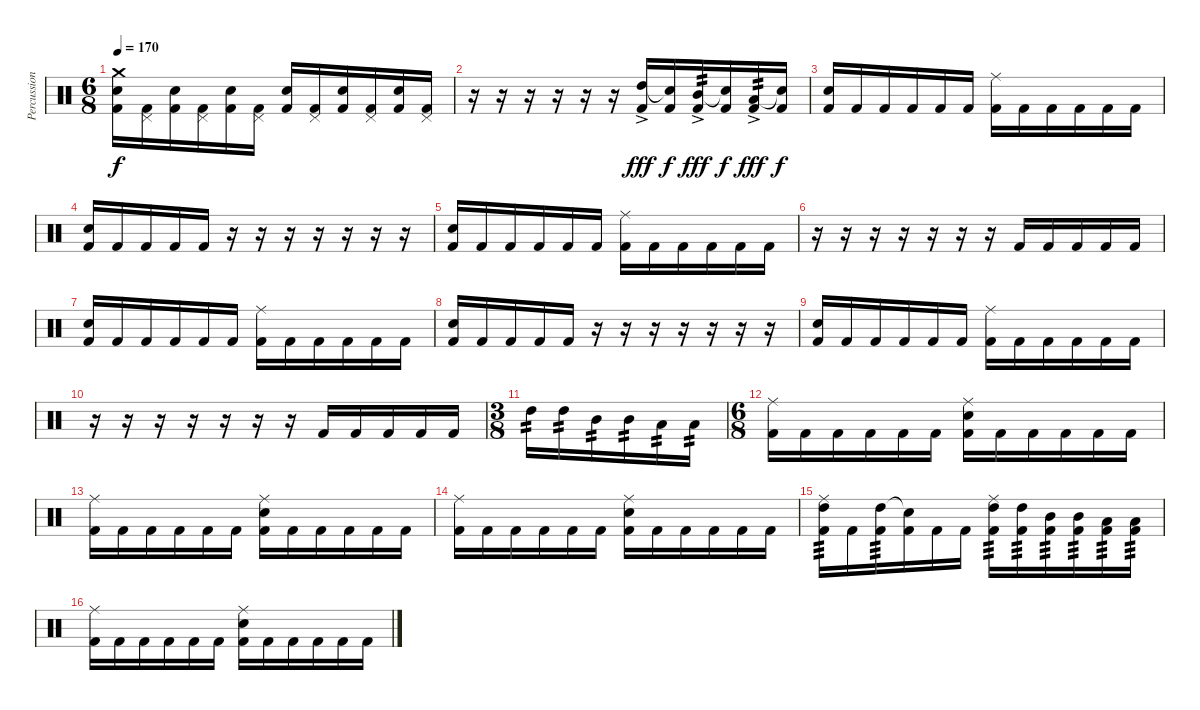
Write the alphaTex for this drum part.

\track ("Percussions" "Percussion") {instrument percussion}
\staff {score}
\articulation defaults
\ts (6 8)
\tempo 170
\clef neutral
\ks c
("Crash medium (hit)" "Snare (hit) 2" "Kick (hit) 2").16{dy f} ("Pedal Hi-Hat (hit)" "Kick (hit) 2").16 ("Snare (hit) 2" "Kick (hit) 2").16 ("Pedal Hi-Hat (hit)" "Kick (hit) 2").16 ("Snare (hit) 2" "Kick (hit) 2").16 ("Pedal Hi-Hat (hit)" "Kick (hit) 2").16 ("Snare (hit) 2" "Kick (hit) 2").16 ("Pedal Hi-Hat (hit)" "Kick (hit) 2").16 ("Snare (hit) 2" "Kick (hit) 2").16 ("Pedal Hi-Hat (hit)" "Kick (hit) 2").16 ("Snare (hit) 2" "Kick (hit) 2").16 ("Pedal Hi-Hat (hit)" "Kick (hit) 2").16 |
r.16 r.16 r.16 r.16 r.16 r.16 ("High Tom (hit)"{ac} "Kick (hit) 2").16{dy fff} ("Snare (hit)"{t} "Kick (hit) 2").16{dy f} ("Mid Tom (hit)"{ac} "Kick (hit) 2").16{tp 2 dy fff} ("Snare (hit)"{t} "Kick (hit) 2").16{dy f} ("Low Tom (hit)"{ac} "Kick (hit) 2").16{tp 2 dy fff} ("Snare (hit)"{t} "Kick (hit) 2").16{dy f} |
("Snare (hit) 2" "Kick (hit) 2").16 "Kick (hit) 2".16 "Kick (hit) 2".16 "Kick (hit) 2".16 "Kick (hit) 2".16 "Kick (hit) 2".16 ("Ride (middle)" "Kick (hit) 2").16 "Kick (hit) 2".16 "Kick (hit) 2".16 "Kick (hit) 2".16 "Kick (hit) 2".16 "Kick (hit) 2".16 |
("Snare (hit) 2" "Kick (hit) 2").16 "Kick (hit) 2".16 "Kick (hit) 2".16 "Kick (hit) 2".16 "Kick (hit) 2".16 r.16 r.16 r.16 r.16 r.16 r.16 r.16 |
("Snare (hit) 2" "Kick (hit) 2").16 "Kick (hit) 2".16 "Kick (hit) 2".16 "Kick (hit) 2".16 "Kick (hit) 2".16 "Kick (hit) 2".16 ("Ride (middle)" "Kick (hit) 2").16 "Kick (hit) 2".16 "Kick (hit) 2".16 "Kick (hit) 2".16 "Kick (hit) 2".16 "Kick (hit) 2".16 |
r.16 r.16 r.16 r.16 r.16 r.16 r.16 "Kick (hit) 2".16 "Kick (hit) 2".16 "Kick (hit) 2".16 "Kick (hit) 2".16 "Kick (hit) 2".16 |
("Snare (hit) 2" "Kick (hit) 2").16 "Kick (hit) 2".16 "Kick (hit) 2".16 "Kick (hit) 2".16 "Kick (hit) 2".16 "Kick (hit) 2".16 ("Ride (middle)" "Kick (hit) 2").16 "Kick (hit) 2".16 "Kick (hit) 2".16 "Kick (hit) 2".16 "Kick (hit) 2".16 "Kick (hit) 2".16 |
("Snare (hit) 2" "Kick (hit) 2").16 "Kick (hit) 2".16 "Kick (hit) 2".16 "Kick (hit) 2".16 "Kick (hit) 2".16 r.16 r.16 r.16 r.16 r.16 r.16 r.16 |
("Snare (hit) 2" "Kick (hit) 2").16 "Kick (hit) 2".16 "Kick (hit) 2".16 "Kick (hit) 2".16 "Kick (hit) 2".16 "Kick (hit) 2".16 ("Ride (middle)" "Kick (hit) 2").16 "Kick (hit) 2".16 "Kick (hit) 2".16 "Kick (hit) 2".16 "Kick (hit) 2".16 "Kick (hit) 2".16 |
r.16 r.16 r.16 r.16 r.16 r.16 r.16 "Kick (hit) 2".16 "Kick (hit) 2".16 "Kick (hit) 2".16 "Kick (hit) 2".16 "Kick (hit) 2".16 |
\ts (3 8)
"High Tom (hit)".16{tp 2} "High Tom (hit)".16{tp 2} "Mid Tom (hit)".16{tp 2} "Mid Tom (hit)".16{tp 2} "Low Tom (hit)".16{tp 2} "Low Tom (hit)".16{tp 2} |
\ts (6 8)
("Ride (middle)" "Kick (hit) 2").16 "Kick (hit) 2".16 "Kick (hit) 2".16 "Kick (hit) 2".16 "Kick (hit) 2".16 "Kick (hit) 2".16 ("Snare (hit) 2" "Ride (middle)" "Kick (hit) 2").16 "Kick (hit) 2".16 "Kick (hit) 2".16 "Kick (hit) 2".16 "Kick (hit) 2".16 "Kick (hit) 2".16 |
("Ride (middle)" "Kick (hit) 2").16 "Kick (hit) 2".16 "Kick (hit) 2".16 "Kick (hit) 2".16 "Kick (hit) 2".16 "Kick (hit) 2".16 ("Snare (hit) 2" "Ride (middle)" "Kick (hit) 2").16 "Kick (hit) 2".16 "Kick (hit) 2".16 "Kick (hit) 2".16 "Kick (hit) 2".16 "Kick (hit) 2".16 |
("Ride (middle)" "Kick (hit) 2").16 "Kick (hit) 2".16 "Kick (hit) 2".16 "Kick (hit) 2".16 "Kick (hit) 2".16 "Kick (hit) 2".16 ("Snare (hit) 2" "Ride (middle)" "Kick (hit) 2").16 "Kick (hit) 2".16 "Kick (hit) 2".16 "Kick (hit) 2".16 "Kick (hit) 2".16 "Kick (hit) 2".16 |
("Ride (middle)" "High Tom (hit)" "Kick (hit) 2").16{tp 3} "Kick (hit) 2".16 ("High Tom (hit)" "Kick (hit) 2").16{tp 3} ("Snare (hit)"{t} "Kick (hit) 2").16 "Kick (hit) 2".16 "Kick (hit) 2".16 ("Ride (middle)" "High Tom (hit)" "Kick (hit) 2").16{tp 3} ("High Tom (hit)" "Kick (hit) 2").16{tp 3} ("Mid Tom (hit)" "Kick (hit) 2").16{tp 3} ("Mid Tom (hit)" "Kick (hit) 2").16{tp 3} ("Low Tom (hit)" "Kick (hit) 2").16{tp 3} ("Low Tom (hit)" "Kick (hit) 2").16{tp 3} |
("Ride (middle)" "Kick (hit) 2").16 "Kick (hit) 2".16 "Kick (hit) 2".16 "Kick (hit) 2".16 "Kick (hit) 2".16 "Kick (hit) 2".16 ("Snare (hit) 2" "Ride (middle)" "Kick (hit) 2").16 "Kick (hit) 2".16 "Kick (hit) 2".16 "Kick (hit) 2".16 "Kick (hit) 2".16 "Kick (hit) 2".16
